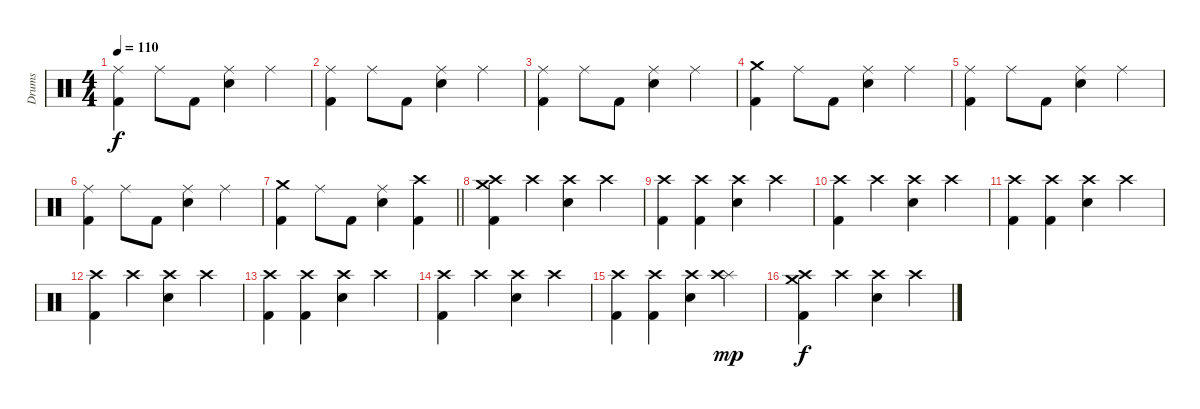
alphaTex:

\track ("Drums" "Drums") {instrument percussion}
\staff {score}
\articulation defaults
\ts (4 4)
\tempo 110
\clef neutral
\ks c
("Ride (middle)" "Kick (hit) 2").4{dy f} "Ride (middle)".8 "Kick (hit) 2".8 ("Ride (middle)" "Snare (hit) 2").4 "Ride (middle)".4 |
("Ride (middle)" "Kick (hit) 2").4 "Ride (middle)".8 "Kick (hit) 2".8 ("Ride (middle)" "Snare (hit) 2").4 "Ride (middle)".4 |
("Ride (middle)" "Kick (hit) 2").4 "Ride (middle)".8 "Kick (hit) 2".8 ("Ride (middle)" "Snare (hit) 2").4 "Ride (middle)".4 |
("Crash medium (hit)" "Kick (hit) 2").4 "Ride (middle)".8 "Kick (hit) 2".8 ("Ride (middle)" "Snare (hit) 2").4 "Ride (middle)".4 |
("Ride (middle)" "Kick (hit) 2").4 "Ride (middle)".8 "Kick (hit) 2".8 ("Ride (middle)" "Snare (hit) 2").4 "Ride (middle)".4 |
("Ride (middle)" "Kick (hit) 2").4 "Ride (middle)".8 "Kick (hit) 2".8 ("Ride (middle)" "Snare (hit) 2").4 "Ride (middle)".4 |
\barLineRight lightlight
("Crash medium (hit)" "Kick (hit) 2").4 "Ride (middle)".8 "Kick (hit) 2".8 ("Ride (middle)" "Snare (hit) 2").4 ("Crash high (hit)" "Kick (hit) 2").4 |
("Crash medium (hit)" "Crash high (hit)" "Kick (hit) 2").4 "Crash high (hit)".4 ("Crash high (hit)" "Snare (hit) 2").4 "Crash high (hit)".4 |
("Crash high (hit)" "Kick (hit) 2").4 ("Crash high (hit)" "Kick (hit) 2").4 ("Crash high (hit)" "Snare (hit) 2").4 "Crash high (hit)".4 |
("Crash high (hit)" "Kick (hit) 2").4 "Crash high (hit)".4 ("Crash high (hit)" "Snare (hit) 2").4 "Crash high (hit)".4 |
("Crash high (hit)" "Kick (hit) 2").4 ("Crash high (hit)" "Kick (hit) 2").4 ("Crash high (hit)" "Snare (hit) 2").4 "Crash high (hit)".4 |
("Crash high (hit)" "Kick (hit) 2").4 "Crash high (hit)".4 ("Crash high (hit)" "Snare (hit) 2").4 "Crash high (hit)".4 |
("Crash high (hit)" "Kick (hit) 2").4 ("Crash high (hit)" "Kick (hit) 2").4 ("Crash high (hit)" "Snare (hit) 2").4 "Crash high (hit)".4 |
("Crash high (hit)" "Kick (hit) 2").4 "Crash high (hit)".4 ("Crash high (hit)" "Snare (hit) 2").4 "Crash high (hit)".4 |
("Crash high (hit)" "Kick (hit) 2").4 ("Crash high (hit)" "Kick (hit) 2").4 ("Crash high (hit)" "Snare (hit) 2").4 ("Splash (hit)" "Crash high (hit)").4{dy mp} |
("Crash medium (hit)" "Crash high (hit)" "Kick (hit) 2").4{dy f} "Crash high (hit)".4 ("Crash high (hit)" "Snare (hit) 2").4 "Crash high (hit)".4
